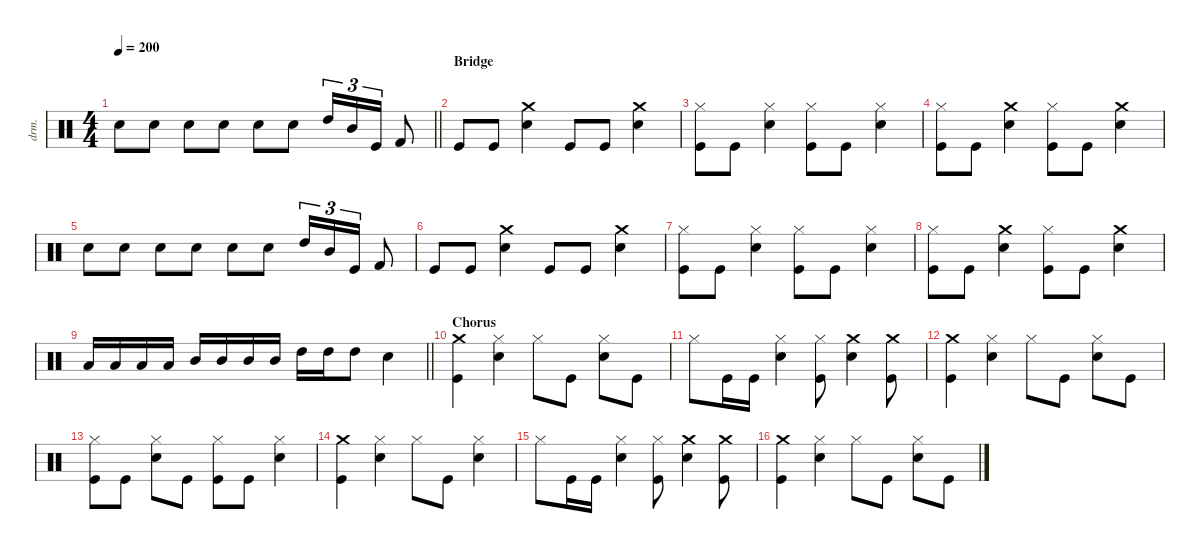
\defaultSystemsLayout 4
\hideDynamics
\bracketExtendMode nobrackets
\otherSystemsTrackNameOrientation horizontal
\track ("Lars Ulrich (Drums)" "drm.") {instrument percussion}
\staff {score}
\articulation defaults
\ts (4 4)
\tempo 200
\clef neutral
\barLineRight lightlight
\ks c "Snare (hit) 2".8{dy f beam Down} "Snare (hit) 2".8{beam Down} "Snare (hit) 2".8{beam Down} "Snare (hit) 2".8{beam Down} "Snare (hit) 2".8{beam Down} "Snare (hit) 2".8{beam Down} "High Tom (hit)".16{tu (3 2) beam Up} "Mid Tom (hit)".16{tu (3 2) beam Up} "Kick (hit)".16{tu (3 2) beam Up} "Kick (hit) 2".8{beam Up}
|
\section ("" "Bridge")
"Kick (hit)".8{beam Up} "Kick (hit)".8{beam Up} ("Crash medium (hit)" "Snare (hit) 2").4{beam Down} "Kick (hit)".8{beam Up} "Kick (hit)".8{beam Up} ("Crash medium (hit)" "Snare (hit) 2").4{beam Down} |
("Kick (hit)" "Hi-Hat (closed)").8{beam Down} "Kick (hit)".8{beam Down} ("Snare (hit) 2" "Hi-Hat (closed)").4{beam Down} ("Kick (hit)" "Hi-Hat (closed)").8{beam Down} "Kick (hit)".8{beam Down} ("Snare (hit) 2" "Hi-Hat (closed)").4{beam Down} |
("Kick (hit)" "Hi-Hat (closed)").8{beam Down} "Kick (hit)".8{beam Down} ("Snare (hit) 2" "Crash medium (hit)").4{beam Down} ("Kick (hit)" "Hi-Hat (closed)").8{beam Down} "Kick (hit)".8{beam Down} ("Crash medium (hit)" "Snare (hit) 2").4{beam Down} |
"Snare (hit) 2".8{beam Down} "Snare (hit) 2".8{beam Down} "Snare (hit) 2".8{beam Down} "Snare (hit) 2".8{beam Down} "Snare (hit) 2".8{beam Down} "Snare (hit) 2".8{beam Down} "High Tom (hit)".16{tu (3 2) beam Up} "Mid Tom (hit)".16{tu (3 2) beam Up} "Kick (hit)".16{tu (3 2) beam Up} "Kick (hit) 2".8{beam Up} |
"Kick (hit)".8{beam Up} "Kick (hit)".8{beam Up} ("Crash medium (hit)" "Snare (hit) 2").4{beam Down} "Kick (hit)".8{beam Up} "Kick (hit)".8{beam Up} ("Crash medium (hit)" "Snare (hit) 2").4{beam Down} |
("Kick (hit)" "Hi-Hat (closed)").8{beam Down} "Kick (hit)".8{beam Down} ("Snare (hit) 2" "Hi-Hat (closed)").4{beam Down} ("Kick (hit)" "Hi-Hat (closed)").8{beam Down} "Kick (hit)".8{beam Down} ("Snare (hit) 2" "Hi-Hat (closed)").4{beam Down} |
("Kick (hit)" "Hi-Hat (closed)").8{beam Down} "Kick (hit)".8{beam Down} ("Snare (hit) 2" "Crash medium (hit)").4{beam Down} ("Kick (hit)" "Hi-Hat (closed)").8{beam Down} "Kick (hit)".8{beam Down} ("Crash medium (hit)" "Snare (hit) 2").4{beam Down} |
\barLineRight lightlight "Low Tom (hit)".16{beam Up} "Low Tom (hit)".16{beam Up} "Low Tom (hit)".16{beam Up} "Low Tom (hit)".16{beam Up} "Mid Tom (hit)".16{beam Up} "Mid Tom (hit)".16{beam Up} "Mid Tom (hit)".16{beam Up} "Mid Tom (hit)".16{beam Up} "High Tom (hit)".16{beam Down} "High Tom (hit)".16{beam Down} "High Tom (hit)".8{beam Down} "Snare (hit) 2".4{beam Down}
|
\section ("" "Chorus")
("Kick (hit)" "Crash medium (hit)").4{beam Down} ("Hi-Hat (closed)" "Snare (hit) 2").4{beam Down} "Hi-Hat (closed)".8{beam Down} "Kick (hit)".8{beam Down} ("Snare (hit) 2" "Hi-Hat (closed)").8{beam Down} "Kick (hit)".8{beam Down} |
"Hi-Hat (closed)".8{beam Down} "Kick (hit)".16{beam Down} "Kick (hit)".16{beam Down} ("Snare (hit) 2" "Hi-Hat (closed)").4{beam Down} ("Kick (hit)" "Hi-Hat (closed)").8{beam Down} ("Snare (hit) 2" "Crash medium (hit)").4{beam Down} ("Crash medium (hit)" "Kick (hit)").8{beam Down} |
("Kick (hit)" "Crash medium (hit)").4{beam Down} ("Hi-Hat (closed)" "Snare (hit) 2").4{beam Down} "Hi-Hat (closed)".8{beam Down} "Kick (hit)".8{beam Down} ("Snare (hit) 2" "Hi-Hat (closed)").8{beam Down} "Kick (hit)".8{beam Down} |
("Hi-Hat (closed)" "Kick (hit)").8{beam Down} "Kick (hit)".8{beam Down} ("Snare (hit) 2" "Hi-Hat (closed)").8{beam Down} "Kick (hit)".8{beam Down} ("Hi-Hat (closed)" "Kick (hit)").8{beam Down} "Kick (hit)".8{beam Down} ("Snare (hit) 2" "Hi-Hat (closed)").4{beam Down} |
("Kick (hit)" "Crash medium (hit)").4{beam Down} ("Hi-Hat (closed)" "Snare (hit) 2").4{beam Down} "Hi-Hat (closed)".8{beam Down} "Kick (hit)".8{beam Down} ("Snare (hit) 2" "Hi-Hat (closed)").4{beam Down} |
"Hi-Hat (closed)".8{beam Down} "Kick (hit)".16{beam Down} "Kick (hit)".16{beam Down} ("Snare (hit) 2" "Hi-Hat (closed)").4{beam Down} ("Kick (hit)" "Hi-Hat (closed)").8{beam Down} ("Snare (hit) 2" "Crash medium (hit)").4{beam Down} ("Crash medium (hit)" "Kick (hit)").8{beam Down} |
("Kick (hit)" "Crash medium (hit)").4{beam Down} ("Hi-Hat (closed)" "Snare (hit) 2").4{beam Down} "Hi-Hat (closed)".8{beam Down} "Kick (hit)".8{beam Down} ("Snare (hit) 2" "Hi-Hat (closed)").8{beam Down} "Kick (hit)".8{beam Down}
